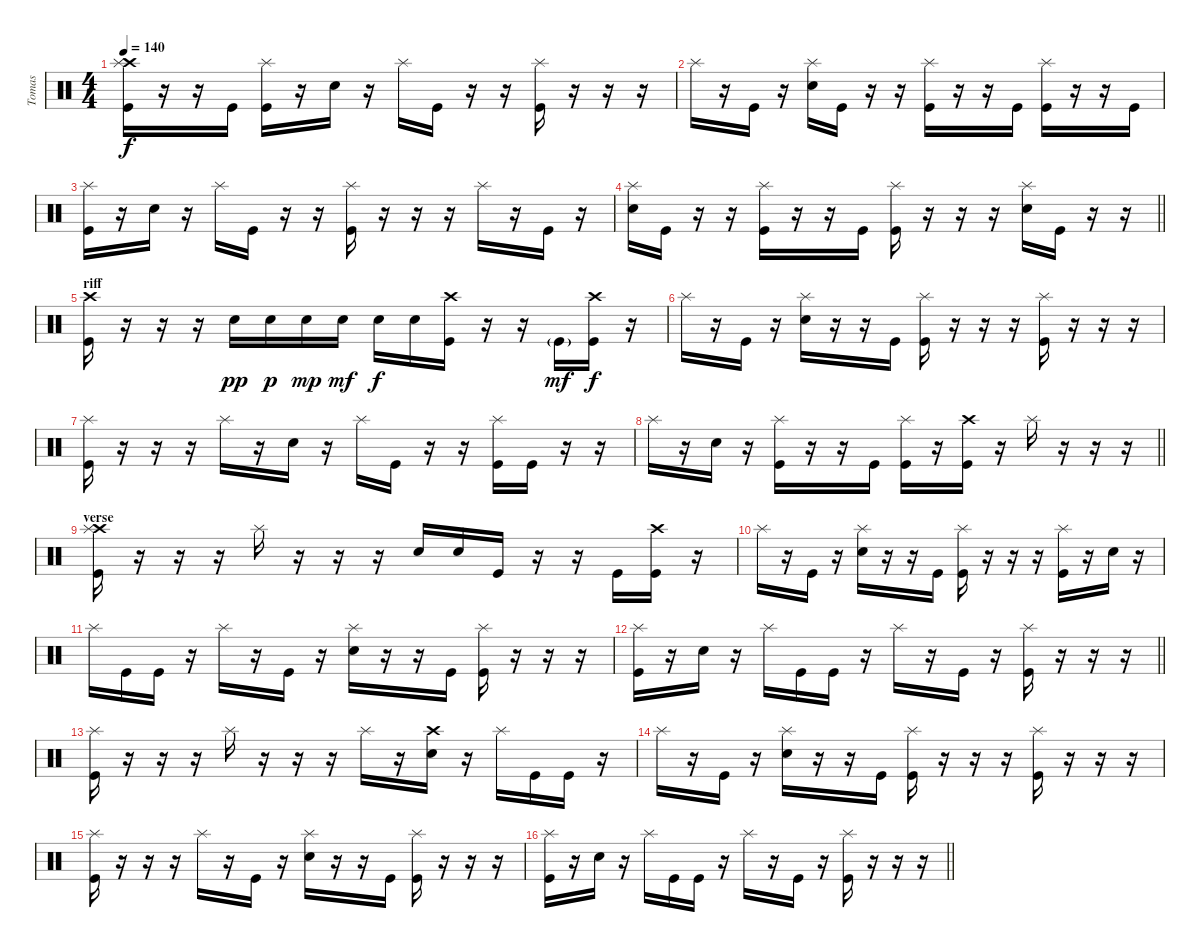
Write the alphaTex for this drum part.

\track ("Tomas" "Tomas") {instrument percussion}
\staff {score}
\articulation defaults
\ts (4 4)
\tempo 140
\clef neutral
\ks c
("Crash high (hit)" "Splash (hit)" "Kick (hit)").16{dy f} r.16 r.16 "Kick (hit)".16 ("Splash (hit)" "Kick (hit)").16 r.16 "Electric Snare (hit)".16 r.16 "Splash (hit)".16 "Kick (hit)".16 r.16 r.16 ("Splash (hit)" "Kick (hit)").16 r.16 r.16 r.16 |
"Splash (hit)".16 r.16 "Kick (hit)".16 r.16 ("Splash (hit)" "Electric Snare (hit)").16 "Kick (hit)".16 r.16 r.16 ("Splash (hit)" "Kick (hit)").16 r.16 r.16 "Kick (hit)".16 ("Splash (hit)" "Kick (hit)").16 r.16 r.16 "Kick (hit)".16 |
("Splash (hit)" "Kick (hit)").16 r.16 "Electric Snare (hit)".16 r.16 "Splash (hit)".16 "Kick (hit)".16 r.16 r.16 ("Splash (hit)" "Kick (hit)").16 r.16 r.16 r.16 "Splash (hit)".16 r.16 "Kick (hit)".16 r.16 |
\barLineRight lightlight
("Splash (hit)" "Electric Snare (hit)").16 "Kick (hit)".16 r.16 r.16 ("Splash (hit)" "Kick (hit)").16 r.16 r.16 "Kick (hit)".16 ("Splash (hit)" "Kick (hit)").16 r.16 r.16 r.16 ("Splash (hit)" "Electric Snare (hit)").16 "Kick (hit)".16 r.16 r.16 |
\section ("" "riff")
("Crash high (hit)" "Kick (hit)").16 r.16 r.16 r.16 "Electric Snare (hit)".16{dy pp} "Electric Snare (hit)".16{dy p} "Electric Snare (hit)".16{dy mp} "Electric Snare (hit)".16{dy mf} "Electric Snare (hit)".16{dy f} "Electric Snare (hit)".16 ("Crash high (hit)" "Kick (hit)").16 r.16 r.16 "Kick (hit)"{g}.16{dy mf} ("Crash high (hit)" "Kick (hit)").16{dy f} r.16 |
"Splash (hit)".16 r.16 "Kick (hit)".16 r.16 ("Splash (hit)" "Electric Snare (hit)").16 r.16 r.16 "Kick (hit)".16 ("Splash (hit)" "Kick (hit)").16 r.16 r.16 r.16 ("Splash (hit)" "Kick (hit)").16 r.16 r.16 r.16 |
("Splash (hit)" "Kick (hit)").16 r.16 r.16 r.16 "Splash (hit)".16 r.16 "Electric Snare (hit)".16 r.16 "Splash (hit)".16 "Kick (hit)".16 r.16 r.16 ("Splash (hit)" "Kick (hit)").16 "Kick (hit)".16 r.16 r.16 |
\barLineRight lightlight "Splash (hit)".16
r.16 "Electric Snare (hit)".16 r.16 ("Splash (hit)" "Kick (hit)").16 r.16 r.16 "Kick (hit)".16 ("Splash (hit)" "Kick (hit)").16 r.16 ("Crash high (hit)" "Kick (hit)").16 r.16 "Splash (hit)".16 r.16 r.16 r.16 |
\section ("" "verse")
("Crash high (hit)" "Splash (hit)" "Kick (hit)").16 r.16 r.16 r.16 "Splash (hit)".16 r.16 r.16 r.16 "Electric Snare (hit)".16 "Electric Snare (hit)".16 "Kick (hit)".16 r.16 r.16 "Kick (hit)".16 ("Crash high (hit)" "Kick (hit)").16 r.16 |
"Splash (hit)".16 r.16 "Kick (hit)".16 r.16 ("Splash (hit)" "Electric Snare (hit)").16 r.16 r.16 "Kick (hit)".16 ("Splash (hit)" "Kick (hit)").16 r.16 r.16 r.16 ("Splash (hit)" "Kick (hit)").16 r.16 "Electric Snare (hit)".16 r.16 |
"Splash (hit)".16 "Kick (hit)".16 "Kick (hit)".16 r.16 "Splash (hit)".16 r.16 "Kick (hit)".16 r.16 ("Splash (hit)" "Electric Snare (hit)").16 r.16 r.16 "Kick (hit)".16 ("Splash (hit)" "Kick (hit)").16 r.16 r.16 r.16 |
\barLineRight lightlight
("Splash (hit)" "Kick (hit)").16 r.16 "Electric Snare (hit)".16 r.16 "Splash (hit)".16 "Kick (hit)".16 "Kick (hit)".16 r.16 "Splash (hit)".16 r.16 "Kick (hit)".16 r.16 ("Splash (hit)" "Kick (hit)").16 r.16 r.16 r.16 |
("Splash (hit)" "Kick (hit)").16 r.16 r.16 r.16 "Splash (hit)".16 r.16 r.16 r.16 "Splash (hit)".16 r.16 ("Crash high (hit)" "Electric Snare (hit)").16 r.16 "Splash (hit)".16 "Kick (hit)".16 "Kick (hit)".16 r.16 |
"Splash (hit)".16 r.16 "Kick (hit)".16 r.16 ("Splash (hit)" "Electric Snare (hit)").16 r.16 r.16 "Kick (hit)".16 ("Splash (hit)" "Kick (hit)").16 r.16 r.16 r.16 ("Splash (hit)" "Kick (hit)").16 r.16 r.16 r.16 |
("Splash (hit)" "Kick (hit)").16 r.16 r.16 r.16 "Splash (hit)".16 r.16 "Kick (hit)".16 r.16 ("Splash (hit)" "Electric Snare (hit)").16 r.16 r.16 "Kick (hit)".16 ("Splash (hit)" "Kick (hit)").16 r.16 r.16 r.16 |
\barLineRight lightlight
("Splash (hit)" "Kick (hit)").16 r.16 "Electric Snare (hit)".16 r.16 "Splash (hit)".16 "Kick (hit)".16 "Kick (hit)".16 r.16 "Splash (hit)".16 r.16 "Kick (hit)".16 r.16 ("Splash (hit)" "Kick (hit)").16 r.16 r.16 r.16
